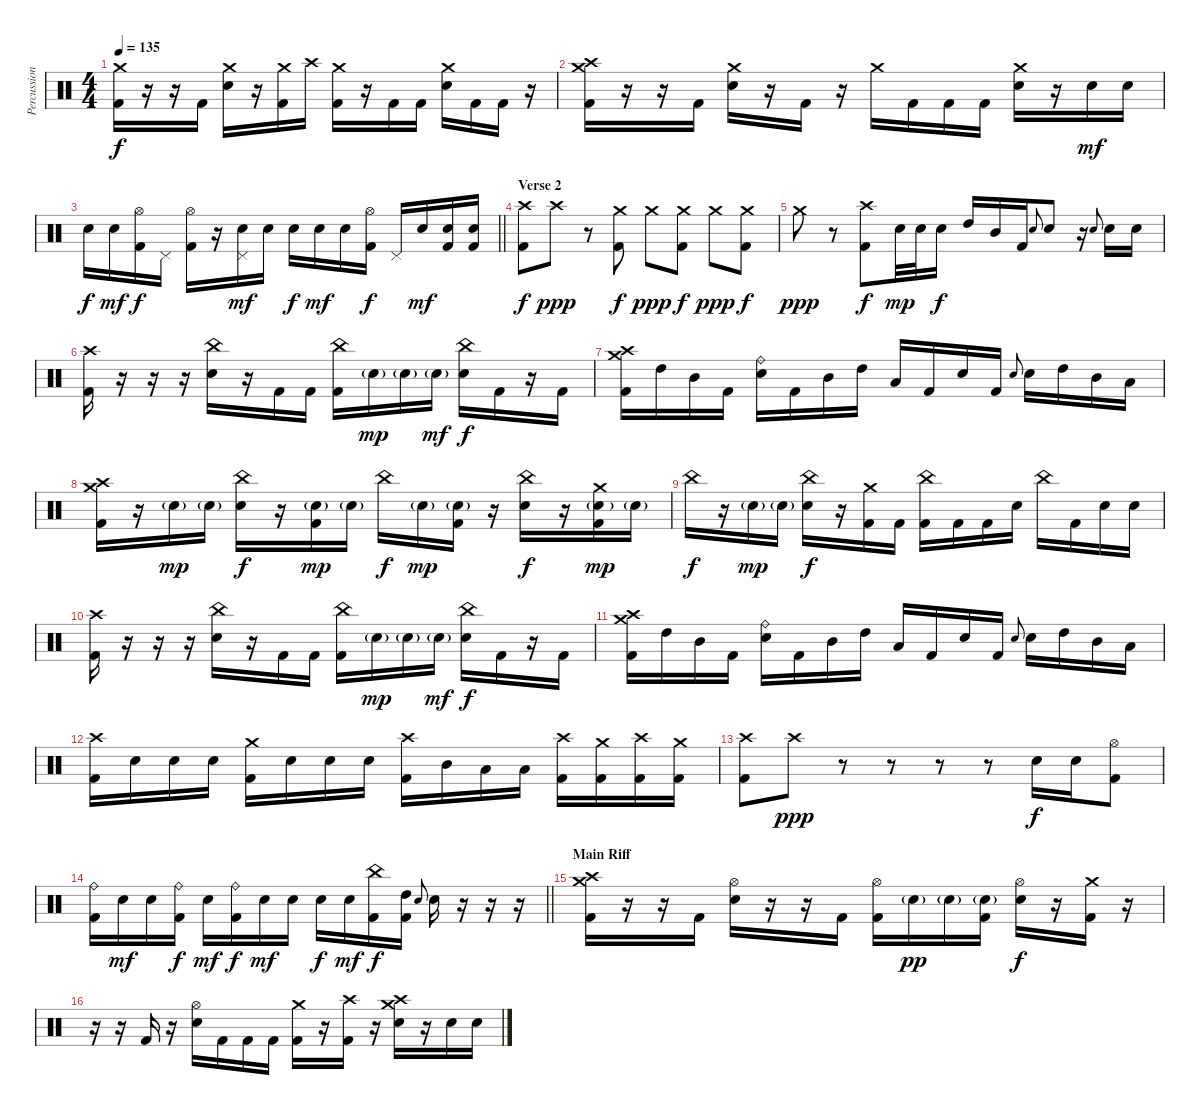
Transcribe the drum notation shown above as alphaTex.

\track ("Percussion" "Percussion") {instrument percussion}
\staff {score}
\articulation defaults
\ts (4 4)
\tempo 135
\clef neutral
\ks c
("Crash medium (hit)" "Kick (hit) 2").16{dy f} r.16 r.16 "Kick (hit) 2".16 ("Crash medium (hit)" "Electric Snare (hit)").16 r.16 ("Crash medium (hit)" "Kick (hit) 2").16 "Crash high (hit)".16 ("Crash medium (hit)" "Kick (hit) 2").16 r.16 "Kick (hit) 2".16 "Kick (hit) 2".16 ("Crash medium (hit)" "Electric Snare (hit)").16 "Kick (hit) 2".16 "Kick (hit) 2".16 r.16 |
("Crash medium (hit)" "Crash high (hit)" "Kick (hit) 2").16 r.16 r.16 "Kick (hit) 2".16 ("Crash medium (hit)" "Electric Snare (hit)").16 r.16 "Kick (hit) 2".16 r.16 "Crash medium (hit)".16 "Kick (hit) 2".16 "Kick (hit) 2".16 "Kick (hit) 2".16 ("Crash medium (hit)" "Electric Snare (hit)").16 r.16 "Electric Snare (hit)".16{dy mf} "Electric Snare (hit)".16 |
\barLineRight lightlight "Electric Snare (hit)".16{dy f} "Electric Snare (hit)".16{dy mf}
("Hi-Hat (open)" "Kick (hit) 2").16{dy f} "Pedal Hi-Hat (hit)".16 ("Hi-Hat (open)" "Kick (hit) 2").16 r.16 ("Pedal Hi-Hat (hit)" "Electric Snare (hit)").16{dy mf} "Electric Snare (hit)".16 "Electric Snare (hit)".16{dy f} "Electric Snare (hit)".16{dy mf} "Electric Snare (hit)".16 ("Hi-Hat (open)" "Kick (hit) 2").16{dy f} "Pedal Hi-Hat (hit)".16 "Electric Snare (hit)".16{dy mf} ("Electric Snare (hit)" "Kick (hit) 2").16 ("Electric Snare (hit)" "Kick (hit) 2").16 |
\section ("" "Verse 2")
("Crash high (hit)" "Kick (hit) 2").8{dy f} "Crash high (hit)".8{dy ppp} r.8 ("Crash medium (hit)" "Kick (hit) 2").8{dy f} "Crash medium (hit)".8{dy ppp} ("Crash medium (hit)" "Kick (hit) 2").8{dy f} "Crash medium (hit)".8{dy ppp} ("Crash medium (hit)" "Kick (hit) 2").8{dy f} |
"Crash medium (hit)".8{dy ppp} r.8 ("Crash high (hit)" "Kick (hit) 2").8{dy f} "Electric Snare (hit)".32{dy mp} "Electric Snare (hit)".32 "Electric Snare (hit)".16{dy f} "High Tom (hit)".16 "Mid Tom (hit)".16 "Kick (hit) 2".16 "Electric Snare (hit)".8{gr onbeat} "Electric Snare (hit)".8 r.16 "Electric Snare (hit)".8{gr onbeat} "Electric Snare (hit)".16 "Electric Snare (hit)".16 |
("Crash high (hit)" "Kick (hit) 2").16 r.16 r.16 r.16 ("China (hit)" "Electric Snare (hit)").16 r.16 "Kick (hit) 2".16 "Kick (hit) 2".16 ("China (hit)" "Kick (hit) 2").16 "Electric Snare (hit)"{g}.16{dy mp} "Electric Snare (hit)"{g}.16 "Electric Snare (hit)"{g}.16{dy mf} ("China (hit)" "Electric Snare (hit)").16{dy f} "Kick (hit) 2".16 r.16 "Kick (hit) 2".16 |
("Crash high (hit)" "Crash medium (hit)" "Kick (hit) 2").16 "High Tom (hit)".16 "Mid Tom (hit)".16 "Kick (hit) 2".16 ("Ride (bell)" "Electric Snare (hit)").16 "Kick (hit) 2".16 "Mid Tom (hit)".16 "High Tom (hit)".16 "Low Tom (hit)".16 "Kick (hit) 2".16 "Electric Snare (hit)".16 "Kick (hit) 2".16 "Electric Snare (hit)".8{gr onbeat} "Electric Snare (hit)".16 "High Tom (hit)".16 "Mid Tom (hit)".16 "Low Tom (hit)".16 |
("Crash high (hit)" "Crash medium (hit)" "Kick (hit) 2").16 r.16 "Electric Snare (hit)"{g}.16{dy mp} "Electric Snare (hit)"{g}.16 ("China (hit)" "Electric Snare (hit)").16{dy f} r.16 ("Electric Snare (hit)"{g} "Kick (hit) 2").16{dy mp} "Electric Snare (hit)"{g}.16 "China (hit)".16{dy f} "Electric Snare (hit)"{g}.16{dy mp} ("Electric Snare (hit)"{g} "Kick (hit) 2").16 r.16 ("China (hit)" "Electric Snare (hit)").16{dy f} r.16 ("Crash medium (hit)" "Electric Snare (hit)"{g} "Kick (hit) 2").16{dy mp} "Electric Snare (hit)"{g}.16 |
"China (hit)".16{dy f} r.16 "Electric Snare (hit)"{g}.16{dy mp} "Electric Snare (hit)"{g}.16 ("China (hit)" "Electric Snare (hit)").16{dy f} r.16 ("Crash medium (hit)" "Kick (hit) 2").16 "Kick (hit) 2".16 ("China (hit)" "Kick (hit) 2").16 "Kick (hit) 2".16 "Kick (hit) 2".16 "Electric Snare (hit)".16 "China (hit)".16 "Kick (hit) 2".16 "Electric Snare (hit)".16 "Electric Snare (hit)".16 |
("Crash high (hit)" "Kick (hit) 2").16 r.16 r.16 r.16 ("China (hit)" "Electric Snare (hit)").16 r.16 "Kick (hit) 2".16 "Kick (hit) 2".16 ("China (hit)" "Kick (hit) 2").16 "Electric Snare (hit)"{g}.16{dy mp} "Electric Snare (hit)"{g}.16 "Electric Snare (hit)"{g}.16{dy mf} ("China (hit)" "Electric Snare (hit)").16{dy f} "Kick (hit) 2".16 r.16 "Kick (hit) 2".16 |
("Crash high (hit)" "Crash medium (hit)" "Kick (hit) 2").16 "High Tom (hit)".16 "Mid Tom (hit)".16 "Kick (hit) 2".16 ("Ride (bell)" "Electric Snare (hit)").16 "Kick (hit) 2".16 "Mid Tom (hit)".16 "High Tom (hit)".16 "Low Tom (hit)".16 "Kick (hit) 2".16 "Electric Snare (hit)".16 "Kick (hit) 2".16 "Electric Snare (hit)".8{gr onbeat} "Electric Snare (hit)".16 "High Tom (hit)".16 "Mid Tom (hit)".16 "Low Tom (hit)".16 |
("Crash high (hit)" "Kick (hit) 2").16 "Electric Snare (hit)".16 "Electric Snare (hit)".16 "Electric Snare (hit)".16 ("Crash medium (hit)" "Kick (hit) 2").16 "Electric Snare (hit)".16 "Electric Snare (hit)".16 "Electric Snare (hit)".16 ("Crash high (hit)" "Kick (hit) 2").16 "Mid Tom (hit)".16 "Low Tom (hit)".16 "Low Tom (hit)".16 ("Crash high (hit)" "Kick (hit) 2").16 ("Crash medium (hit)" "Kick (hit) 2").16 ("Crash high (hit)" "Kick (hit) 2").16 ("Crash medium (hit)" "Kick (hit) 2").16 |
("Crash high (hit)" "Kick (hit) 2").8 "Crash high (hit)".8{dy ppp} r.8 r.8 r.8 r.8 "Electric Snare (hit)".16{dy f} "Electric Snare (hit)".16 ("Hi-Hat (open)" "Kick (hit) 2").8 |
\barLineRight lightlight
("Ride (bell)" "Kick (hit) 2").16 "Electric Snare (hit)".16{dy mf} "Electric Snare (hit)".16 ("Ride (bell)" "Kick (hit) 2").16{dy f} "Electric Snare (hit)".16{dy mf} ("Ride (bell)" "Kick (hit) 2").16{dy f} "Electric Snare (hit)".16{dy mf} "Electric Snare (hit)".16 "Electric Snare (hit)".16{dy f} "Electric Snare (hit)".16{dy mf} ("China (hit)" "Kick (hit) 2").16{dy f} ("High Tom (hit)" "Kick (hit) 2").16 "Electric Snare (hit)".8{gr onbeat} "Electric Snare (hit)".16 r.16 r.16 r.16 |
\section ("" "Main Riff")
("Crash high (hit)" "Crash medium (hit)" "Kick (hit) 2").16 r.16 r.16 "Kick (hit) 2".16 ("Hi-Hat (open)" "Electric Snare (hit)").16 r.16 r.16 "Kick (hit) 2".16 ("Hi-Hat (open)" "Kick (hit) 2").16 "Electric Snare (hit)"{g}.16{dy pp} "Electric Snare (hit)"{g}.16 ("Electric Snare (hit)"{g} "Kick (hit) 2").16 ("Hi-Hat (open)" "Electric Snare (hit)").16{dy f} r.16 ("Crash medium (hit)" "Kick (hit) 2").16 r.16 |
r.16 r.16 "Kick (hit) 2".16 r.16 ("Hi-Hat (open)" "Electric Snare (hit)").16 "Kick (hit) 2".16 "Kick (hit) 2".16 "Kick (hit) 2".16 ("Crash medium (hit)" "Kick (hit) 2").16 r.16 ("Crash high (hit)" "Kick (hit) 2").16 r.16 ("Crash high (hit)" "Crash medium (hit)" "Electric Snare (hit)").16 r.16 "Electric Snare (hit)".16 "Electric Snare (hit)".16
